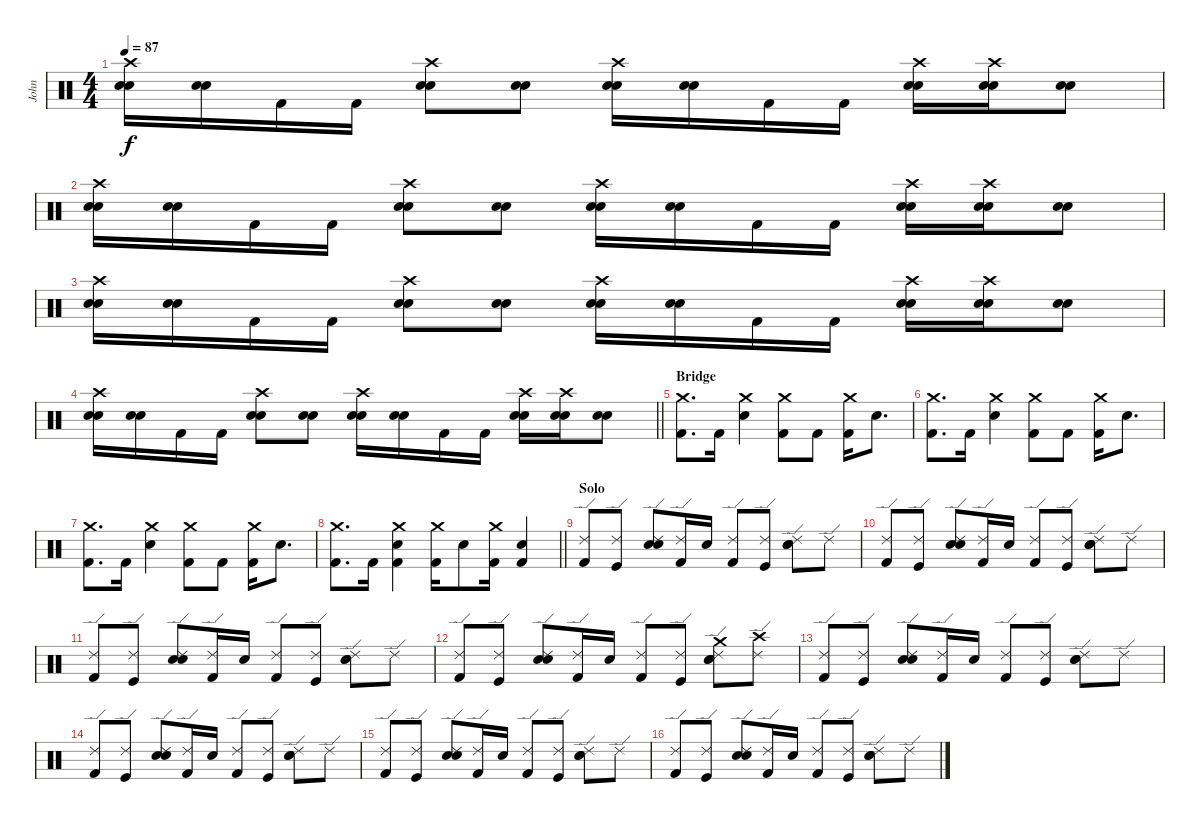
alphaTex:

\track ("John" "John") {instrument percussion}
\staff {score}
\articulation defaults
\ts (4 4)
\tempo 87
\clef neutral
\ks c
("Crash high (hit)" "Snare (hit) 2" "Electric Snare (hit)").16{dy f} ("Snare (hit) 2" "Electric Snare (hit)").16 "Kick (hit) 2".16 "Kick (hit) 2".16 ("Crash high (hit)" "Snare (hit) 2" "Electric Snare (hit)").8 ("Snare (hit) 2" "Electric Snare (hit)").8 ("Crash high (hit)" "Snare (hit) 2" "Electric Snare (hit)").16 ("Snare (hit) 2" "Electric Snare (hit)").16 "Kick (hit) 2".16 "Kick (hit) 2".16 ("Crash high (hit)" "Snare (hit) 2" "Electric Snare (hit)").16 ("Crash high (hit)" "Snare (hit) 2" "Electric Snare (hit)").16 ("Snare (hit) 2" "Electric Snare (hit)").8 |
("Crash high (hit)" "Snare (hit) 2" "Electric Snare (hit)").16 ("Snare (hit) 2" "Electric Snare (hit)").16 "Kick (hit) 2".16 "Kick (hit) 2".16 ("Crash high (hit)" "Snare (hit) 2" "Electric Snare (hit)").8 ("Snare (hit) 2" "Electric Snare (hit)").8 ("Crash high (hit)" "Snare (hit) 2" "Electric Snare (hit)").16 ("Snare (hit) 2" "Electric Snare (hit)").16 "Kick (hit) 2".16 "Kick (hit) 2".16 ("Crash high (hit)" "Snare (hit) 2" "Electric Snare (hit)").16 ("Crash high (hit)" "Snare (hit) 2" "Electric Snare (hit)").16 ("Snare (hit) 2" "Electric Snare (hit)").8 |
("Crash high (hit)" "Snare (hit) 2" "Electric Snare (hit)").16 ("Snare (hit) 2" "Electric Snare (hit)").16 "Kick (hit) 2".16 "Kick (hit) 2".16 ("Crash high (hit)" "Snare (hit) 2" "Electric Snare (hit)").8 ("Snare (hit) 2" "Electric Snare (hit)").8 ("Crash high (hit)" "Snare (hit) 2" "Electric Snare (hit)").16 ("Snare (hit) 2" "Electric Snare (hit)").16 "Kick (hit) 2".16 "Kick (hit) 2".16 ("Crash high (hit)" "Snare (hit) 2" "Electric Snare (hit)").16 ("Crash high (hit)" "Snare (hit) 2" "Electric Snare (hit)").16 ("Snare (hit) 2" "Electric Snare (hit)").8 |
\barLineRight lightlight
("Crash high (hit)" "Snare (hit) 2" "Electric Snare (hit)").16 ("Snare (hit) 2" "Electric Snare (hit)").16 "Kick (hit) 2".16 "Kick (hit) 2".16 ("Crash high (hit)" "Snare (hit) 2" "Electric Snare (hit)").8 ("Snare (hit) 2" "Electric Snare (hit)").8 ("Crash high (hit)" "Snare (hit) 2" "Electric Snare (hit)").16 ("Snare (hit) 2" "Electric Snare (hit)").16 "Kick (hit) 2".16 "Kick (hit) 2".16 ("Crash high (hit)" "Snare (hit) 2" "Electric Snare (hit)").16 ("Crash high (hit)" "Snare (hit) 2" "Electric Snare (hit)").16 ("Snare (hit) 2" "Electric Snare (hit)").8 |
\section ("" "Bridge")
("Crash medium (hit)" "Kick (hit) 2").8{d} "Kick (hit) 2".16 ("Crash medium (hit)" "Electric Snare (hit)").4 ("Crash medium (hit)" "Kick (hit) 2").8 "Kick (hit) 2".8 ("Crash medium (hit)" "Kick (hit) 2").16 "Electric Snare (hit)".8{d} |
("Crash medium (hit)" "Kick (hit) 2").8{d} "Kick (hit) 2".16 ("Crash medium (hit)" "Electric Snare (hit)").4 ("Crash medium (hit)" "Kick (hit) 2").8 "Kick (hit) 2".8 ("Crash medium (hit)" "Kick (hit) 2").16 "Electric Snare (hit)".8{d} |
("Crash medium (hit)" "Kick (hit) 2").8{d} "Kick (hit) 2".16 ("Crash medium (hit)" "Electric Snare (hit)").4 ("Crash medium (hit)" "Kick (hit) 2").8 "Kick (hit) 2".8 ("Crash medium (hit)" "Kick (hit) 2").16 "Electric Snare (hit)".8{d} |
\barLineRight lightlight
("Crash medium (hit)" "Kick (hit) 2").8{d} "Kick (hit) 2".16 ("Crash medium (hit)" "Electric Snare (hit)" "Kick (hit) 2").4 ("Crash medium (hit)" "Kick (hit) 2").16 "Electric Snare (hit)".8 ("Crash medium (hit)" "Kick (hit) 2").16 ("Electric Snare (hit)" "Kick (hit) 2").4 |
\section ("" "Solo")
("Ride (edge) 2" "Kick (hit) 2").8 ("Ride (edge) 2" "Kick (hit)").8 ("Ride (edge) 2" "Electric Snare (hit)" "Snare (hit) 2").8 ("Ride (edge) 2" "Kick (hit) 2").16 "Electric Snare (hit)".16 ("Ride (edge) 2" "Kick (hit) 2").8 ("Ride (edge) 2" "Kick (hit)").8 ("Ride (edge) 2" "Electric Snare (hit)" "Snare (hit) 2").8 "Ride (edge) 2".8 |
("Ride (edge) 2" "Kick (hit) 2").8 ("Ride (edge) 2" "Kick (hit)").8 ("Ride (edge) 2" "Electric Snare (hit)" "Snare (hit) 2").8 ("Ride (edge) 2" "Kick (hit) 2").16 "Electric Snare (hit)".16 ("Ride (edge) 2" "Kick (hit) 2").8 ("Ride (edge) 2" "Kick (hit)").8 ("Ride (edge) 2" "Electric Snare (hit)" "Snare (hit) 2").8 "Ride (edge) 2".8 |
("Ride (edge) 2" "Kick (hit) 2").8 ("Ride (edge) 2" "Kick (hit)").8 ("Ride (edge) 2" "Electric Snare (hit)" "Snare (hit) 2").8 ("Ride (edge) 2" "Kick (hit) 2").16 "Electric Snare (hit)".16 ("Ride (edge) 2" "Kick (hit) 2").8 ("Ride (edge) 2" "Kick (hit)").8 ("Ride (edge) 2" "Electric Snare (hit)" "Snare (hit) 2").8 "Ride (edge) 2".8 |
("Ride (edge) 2" "Kick (hit) 2").8 ("Ride (edge) 2" "Kick (hit)").8 ("Ride (edge) 2" "Electric Snare (hit)" "Snare (hit) 2").8 ("Ride (edge) 2" "Kick (hit) 2").16 "Electric Snare (hit)".16 ("Ride (edge) 2" "Kick (hit) 2").8 ("Ride (edge) 2" "Kick (hit)").8 ("Crash medium (hit)" "Ride (edge) 2" "Electric Snare (hit)" "Snare (hit) 2").8 ("Crash high (hit)" "Ride (edge) 2").8 |
("Ride (edge) 2" "Kick (hit) 2").8 ("Ride (edge) 2" "Kick (hit)").8 ("Ride (edge) 2" "Electric Snare (hit)" "Snare (hit) 2").8 ("Ride (edge) 2" "Kick (hit) 2").16 "Electric Snare (hit)".16 ("Ride (edge) 2" "Kick (hit) 2").8 ("Ride (edge) 2" "Kick (hit)").8 ("Ride (edge) 2" "Electric Snare (hit)" "Snare (hit) 2").8 "Ride (edge) 2".8 |
("Ride (edge) 2" "Kick (hit) 2").8 ("Ride (edge) 2" "Kick (hit)").8 ("Ride (edge) 2" "Electric Snare (hit)" "Snare (hit) 2").8 ("Ride (edge) 2" "Kick (hit) 2").16 "Electric Snare (hit)".16 ("Ride (edge) 2" "Kick (hit) 2").8 ("Ride (edge) 2" "Kick (hit)").8 ("Ride (edge) 2" "Electric Snare (hit)" "Snare (hit) 2").8 "Ride (edge) 2".8 |
("Ride (edge) 2" "Kick (hit) 2").8 ("Ride (edge) 2" "Kick (hit)").8 ("Ride (edge) 2" "Electric Snare (hit)" "Snare (hit) 2").8 ("Ride (edge) 2" "Kick (hit) 2").16 "Electric Snare (hit)".16 ("Ride (edge) 2" "Kick (hit) 2").8 ("Ride (edge) 2" "Kick (hit)").8 ("Ride (edge) 2" "Electric Snare (hit)" "Snare (hit) 2").8 "Ride (edge) 2".8 |
("Ride (edge) 2" "Kick (hit) 2").8 ("Ride (edge) 2" "Kick (hit)").8 ("Ride (edge) 2" "Electric Snare (hit)" "Snare (hit) 2").8 ("Ride (edge) 2" "Kick (hit) 2").16 "Electric Snare (hit)".16 ("Ride (edge) 2" "Kick (hit) 2").8 ("Ride (edge) 2" "Kick (hit)").8 ("Ride (edge) 2" "Electric Snare (hit)" "Snare (hit) 2").8 "Ride (edge) 2".8
